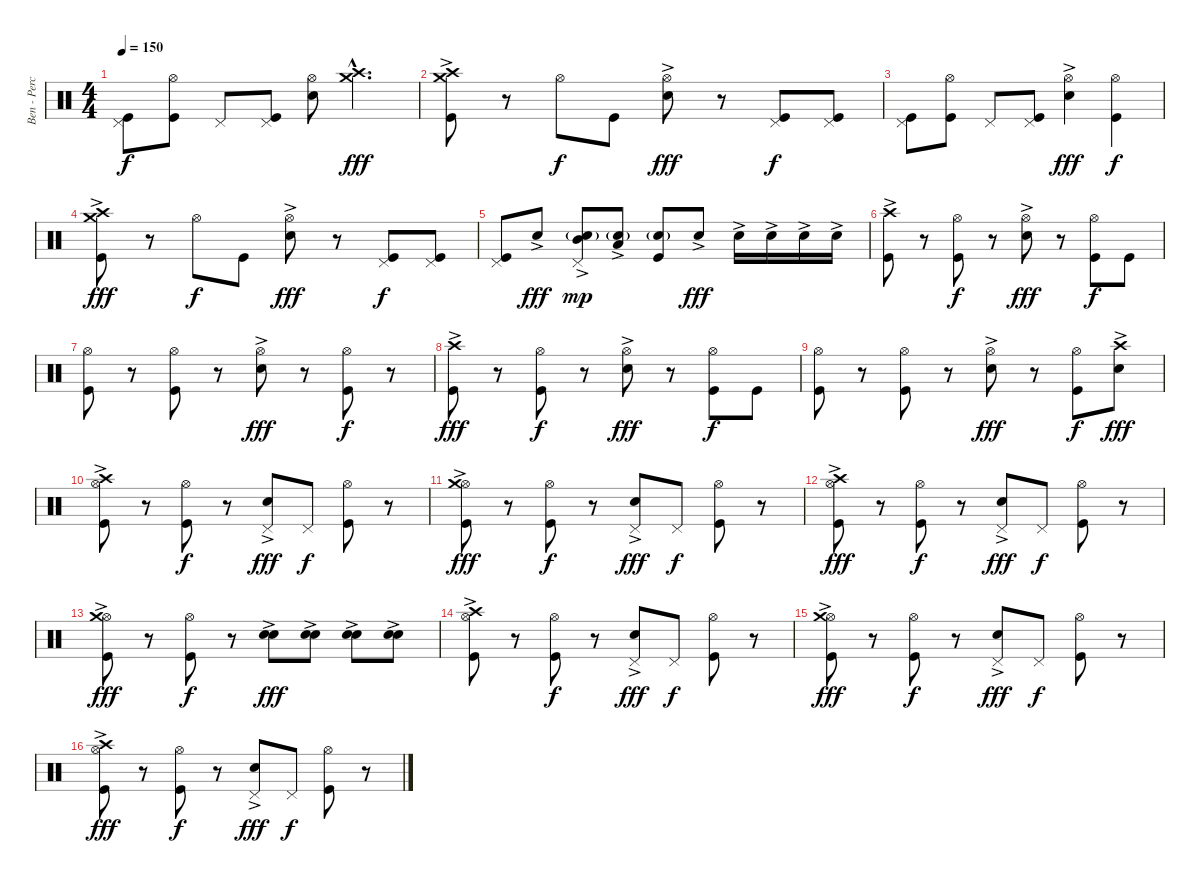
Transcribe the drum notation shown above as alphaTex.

\track ("Ben - Perception Twin - Drums" "Ben - Perc") {instrument percussion}
\staff {score}
\articulation defaults
\ts (4 4)
\tempo 150
\clef neutral
\ks c
("Pedal Hi-Hat (hit)" "Kick (hit)").8{dy f} ("Hi-Hat (open)" "Kick (hit)").8 "Pedal Hi-Hat (hit)".8 ("Pedal Hi-Hat (hit)" "Kick (hit)").8 ("Hi-Hat (open)" "Electric Snare (hit)").8 ("Crash medium (hit)"{hac} "Crash high (hit)"{hac}).4{d dy fff} |
("Crash medium (hit)"{ac} "Crash high (hit)"{ac} "Kick (hit)").8 r.8 "Hi-Hat (open)".8{dy f} "Kick (hit)".8 ("Hi-Hat (open)" "Electric Snare (hit)"{ac}).8{dy fff} r.8 ("Pedal Hi-Hat (hit)" "Kick (hit)").8{dy f} ("Pedal Hi-Hat (hit)" "Kick (hit)").8 |
("Pedal Hi-Hat (hit)" "Kick (hit)").8 ("Hi-Hat (open)" "Kick (hit)").8 "Pedal Hi-Hat (hit)".8 ("Pedal Hi-Hat (hit)" "Kick (hit)").8 ("Hi-Hat (open)" "Electric Snare (hit)"{ac}).4{dy fff} ("Hi-Hat (open)" "Kick (hit)").4{dy f} |
("Crash medium (hit)"{ac} "Crash high (hit)"{ac} "Kick (hit)").8{dy fff} r.8 "Hi-Hat (open)".8{dy f} "Kick (hit)".8 ("Hi-Hat (open)" "Electric Snare (hit)"{ac}).8{dy fff} r.8 ("Pedal Hi-Hat (hit)" "Kick (hit)").8{dy f} ("Pedal Hi-Hat (hit)" "Kick (hit)").8 |
("Pedal Hi-Hat (hit)" "Kick (hit)").8 "Electric Snare (hit)"{ac}.8{dy fff} ("Pedal Hi-Hat (hit)" "Mid Tom (hit)"{ac} "Electric Snare (hit)"{g}).8{dy mp} ("Low Tom (hit)"{ac} "Electric Snare (hit)"{g}).8 ("Electric Snare (hit)"{g} "Kick (hit)").8 "Electric Snare (hit)"{ac}.8{dy fff} "Electric Snare (hit)"{ac}.16 "Electric Snare (hit)"{ac}.16 "Electric Snare (hit)"{ac}.16 "Electric Snare (hit)"{ac}.16 |
("Crash high (hit)"{ac} "Kick (hit)").8 r.8 ("Hi-Hat (open)" "Kick (hit)").8{dy f} r.8 ("Hi-Hat (open)" "Electric Snare (hit)"{ac}).8{dy fff} r.8 ("Hi-Hat (open)" "Kick (hit)").8{dy f} "Kick (hit)".8 |
("Hi-Hat (open)" "Kick (hit)").8 r.8 ("Hi-Hat (open)" "Kick (hit)").8 r.8 ("Hi-Hat (open)" "Electric Snare (hit)"{ac}).8{dy fff} r.8 ("Hi-Hat (open)" "Kick (hit)").8{dy f} r.8 |
("Crash high (hit)"{ac} "Kick (hit)").8{dy fff} r.8 ("Hi-Hat (open)" "Kick (hit)").8{dy f} r.8 ("Hi-Hat (open)" "Electric Snare (hit)"{ac}).8{dy fff} r.8 ("Hi-Hat (open)" "Kick (hit)").8{dy f} "Kick (hit)".8 |
("Hi-Hat (open)" "Kick (hit)").8 r.8 ("Hi-Hat (open)" "Kick (hit)").8 r.8 ("Hi-Hat (open)" "Electric Snare (hit)"{ac}).8{dy fff} r.8 ("Hi-Hat (open)" "Kick (hit)").8{dy f} ("Crash high (hit)" "Electric Snare (hit)"{ac}).8{dy fff} |
("Hi-Hat (open)"{ac} "Crash high (hit)"{ac} "Kick (hit)").8 r.8 ("Hi-Hat (open)" "Kick (hit)").8{dy f} r.8 ("Pedal Hi-Hat (hit)" "Electric Snare (hit)"{ac}).8{dy fff} "Pedal Hi-Hat (hit)".8{dy f} ("Hi-Hat (open)" "Kick (hit)").8 r.8 |
("Hi-Hat (open)"{ac} "Crash medium (hit)"{ac} "Kick (hit)").8{dy fff} r.8 ("Hi-Hat (open)" "Kick (hit)").8{dy f} r.8 ("Pedal Hi-Hat (hit)" "Electric Snare (hit)"{ac}).8{dy fff} "Pedal Hi-Hat (hit)".8{dy f} ("Hi-Hat (open)" "Kick (hit)").8 r.8 |
("Hi-Hat (open)"{ac} "Crash high (hit)"{ac} "Kick (hit)").8{dy fff} r.8 ("Hi-Hat (open)" "Kick (hit)").8{dy f} r.8 ("Pedal Hi-Hat (hit)" "Electric Snare (hit)"{ac}).8{dy fff} "Pedal Hi-Hat (hit)".8{dy f} ("Hi-Hat (open)" "Kick (hit)").8 r.8 |
("Hi-Hat (open)"{ac} "Crash medium (hit)"{ac} "Kick (hit)").8{dy fff} r.8 ("Hi-Hat (open)" "Kick (hit)").8{dy f} r.8 ("Electric Snare (hit)"{ac} "Electric Snare (hit)"{ac}).8{dy fff} ("Electric Snare (hit)"{ac} "Electric Snare (hit)"{ac}).8 ("Electric Snare (hit)"{ac} "Electric Snare (hit)"{ac}).8 ("Electric Snare (hit)"{ac} "Electric Snare (hit)"{ac}).8 |
("Hi-Hat (open)"{ac} "Crash high (hit)"{ac} "Kick (hit)").8 r.8 ("Hi-Hat (open)" "Kick (hit)").8{dy f} r.8 ("Pedal Hi-Hat (hit)" "Electric Snare (hit)"{ac}).8{dy fff} "Pedal Hi-Hat (hit)".8{dy f} ("Hi-Hat (open)" "Kick (hit)").8 r.8 |
("Hi-Hat (open)"{ac} "Crash medium (hit)"{ac} "Kick (hit)").8{dy fff} r.8 ("Hi-Hat (open)" "Kick (hit)").8{dy f} r.8 ("Pedal Hi-Hat (hit)" "Electric Snare (hit)"{ac}).8{dy fff} "Pedal Hi-Hat (hit)".8{dy f} ("Hi-Hat (open)" "Kick (hit)").8 r.8 |
("Hi-Hat (open)"{ac} "Crash high (hit)"{ac} "Kick (hit)").8{dy fff} r.8 ("Hi-Hat (open)" "Kick (hit)").8{dy f} r.8 ("Pedal Hi-Hat (hit)" "Electric Snare (hit)"{ac}).8{dy fff} "Pedal Hi-Hat (hit)".8{dy f} ("Hi-Hat (open)" "Kick (hit)").8 r.8
